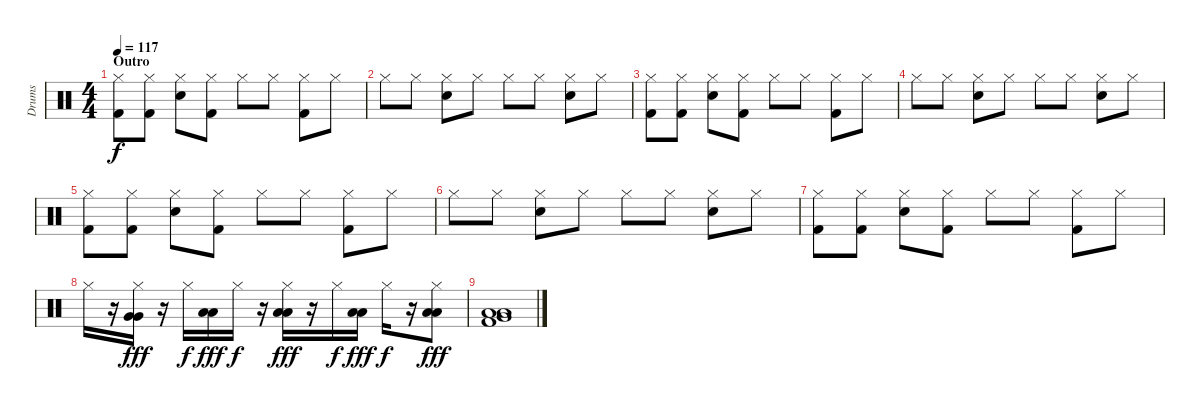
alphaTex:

\track ("Drums" "Drums") {instrument percussion}
\staff {score}
\articulation defaults
\ts (4 4)
\section ("" "Outro")
\tempo 117
\clef neutral
\ks c
("Hi-Hat (closed)" "Kick (hit) 2").8{dy f} ("Hi-Hat (closed)" "Kick (hit) 2").8 ("Hi-Hat (closed)" "Snare (hit) 2").8 ("Hi-Hat (closed)" "Kick (hit) 2").8 "Hi-Hat (closed)".8 "Hi-Hat (closed)".8 ("Hi-Hat (closed)" "Kick (hit) 2").8 "Hi-Hat (closed)".8 |
"Hi-Hat (closed)".8 "Hi-Hat (closed)".8 ("Hi-Hat (closed)" "Snare (hit) 2").8 "Hi-Hat (closed)".8 "Hi-Hat (closed)".8 "Hi-Hat (closed)".8 ("Hi-Hat (closed)" "Snare (hit) 2").8 "Hi-Hat (closed)".8 |
("Hi-Hat (closed)" "Kick (hit) 2").8 ("Hi-Hat (closed)" "Kick (hit) 2").8 ("Hi-Hat (closed)" "Snare (hit) 2").8 ("Hi-Hat (closed)" "Kick (hit) 2").8 "Hi-Hat (closed)".8 "Hi-Hat (closed)".8 ("Hi-Hat (closed)" "Kick (hit) 2").8 "Hi-Hat (closed)".8 |
"Hi-Hat (closed)".8 "Hi-Hat (closed)".8 ("Hi-Hat (closed)" "Snare (hit) 2").8 "Hi-Hat (closed)".8 "Hi-Hat (closed)".8 "Hi-Hat (closed)".8 ("Hi-Hat (closed)" "Snare (hit) 2").8 "Hi-Hat (closed)".8 |
("Hi-Hat (closed)" "Kick (hit) 2").8 ("Hi-Hat (closed)" "Kick (hit) 2").8 ("Hi-Hat (closed)" "Snare (hit) 2").8 ("Hi-Hat (closed)" "Kick (hit) 2").8 "Hi-Hat (closed)".8 "Hi-Hat (closed)".8 ("Hi-Hat (closed)" "Kick (hit) 2").8 "Hi-Hat (closed)".8 |
"Hi-Hat (closed)".8 "Hi-Hat (closed)".8 ("Hi-Hat (closed)" "Snare (hit) 2").8 "Hi-Hat (closed)".8 "Hi-Hat (closed)".8 "Hi-Hat (closed)".8 ("Hi-Hat (closed)" "Snare (hit) 2").8 "Hi-Hat (closed)".8 |
("Hi-Hat (closed)" "Kick (hit) 2").8 ("Hi-Hat (closed)" "Kick (hit) 2").8 ("Hi-Hat (closed)" "Snare (hit) 2").8 ("Hi-Hat (closed)" "Kick (hit) 2").8 "Hi-Hat (closed)".8 "Hi-Hat (closed)".8 ("Hi-Hat (closed)" "Kick (hit) 2").8 "Hi-Hat (closed)".8 |
"Hi-Hat (closed)".16 r.16 ("Very Low Tom (hit)" "Very Low Tom (hit)" "Hi-Hat (closed)").16{dy fff} r.16 "Hi-Hat (closed)".16{dy f} ("Low Floor Tom (hit)" "Low Floor Tom (hit)").16{dy fff} "Hi-Hat (closed)".16{dy f} r.16 ("Low Floor Tom (hit)" "Low Floor Tom (hit)" "Hi-Hat (closed)").16{dy fff} r.16 "Hi-Hat (closed)".16{dy f} ("Low Floor Tom (hit)" "Low Floor Tom (hit)").16{dy fff} "Hi-Hat (closed)".16{dy f} r.16 ("Low Floor Tom (hit)" "Low Floor Tom (hit)" "Hi-Hat (closed)").8{dy fff} |
("Very Low Tom (hit)" "Low Floor Tom (hit)" "Low Floor Tom (hit)" "Kick (hit) 2").1
